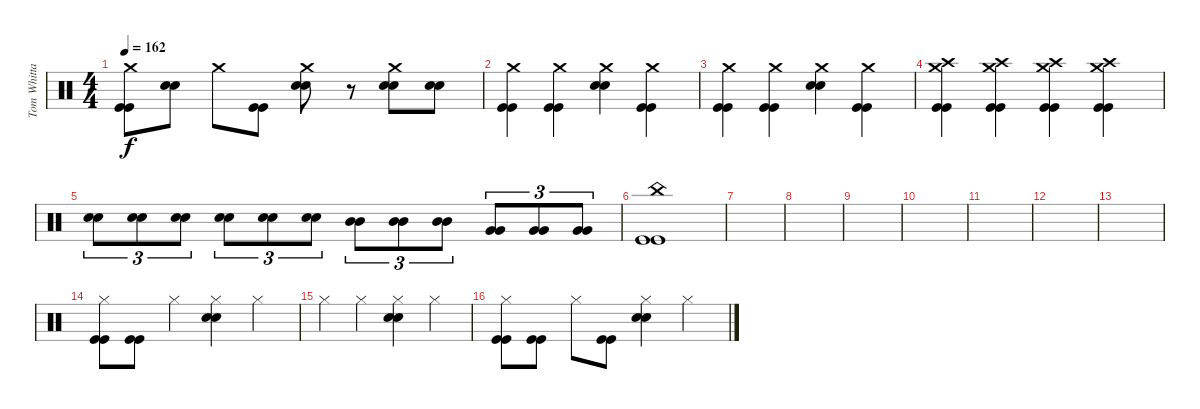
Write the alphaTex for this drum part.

\track ("Tom Whittaker" "Tom Whitta") {instrument percussion}
\staff {score}
\articulation defaults
\ts (4 4)
\tempo 162
\clef neutral
\ks c
("Crash medium (hit)" "Kick (hit)" "Kick (hit)").8{dy f} ("Electric Snare (hit)" "Electric Snare (hit)").8 "Crash medium (hit)".8 ("Kick (hit)" "Kick (hit)").8 ("Crash medium (hit)" "Electric Snare (hit)" "Electric Snare (hit)").8 r.8 ("Crash medium (hit)" "Electric Snare (hit)" "Electric Snare (hit)").8 ("Electric Snare (hit)" "Electric Snare (hit)").8 |
("Crash medium (hit)" "Kick (hit)" "Kick (hit)").4 ("Crash medium (hit)" "Kick (hit)" "Kick (hit)").4 ("Crash medium (hit)" "Electric Snare (hit)" "Electric Snare (hit)").4 ("Crash medium (hit)" "Kick (hit)" "Kick (hit)").4 |
("Crash medium (hit)" "Kick (hit)" "Kick (hit)").4 ("Crash medium (hit)" "Kick (hit)" "Kick (hit)").4 ("Crash medium (hit)" "Electric Snare (hit)" "Electric Snare (hit)").4 ("Crash medium (hit)" "Kick (hit)" "Kick (hit)").4 |
("Crash high (hit)" "Crash medium (hit)" "Kick (hit)" "Kick (hit)").4 ("Crash high (hit)" "Crash medium (hit)" "Kick (hit)" "Kick (hit)").4 ("Crash high (hit)" "Crash medium (hit)" "Kick (hit)" "Kick (hit)").4 ("Crash high (hit)" "Crash medium (hit)" "Kick (hit)" "Kick (hit)").4 |
("Electric Snare (hit)" "Electric Snare (hit)").8{tu (3 2)} ("Electric Snare (hit)" "Electric Snare (hit)").8{tu (3 2)} ("Electric Snare (hit)" "Electric Snare (hit)").8{tu (3 2)} ("Electric Snare (hit)" "Electric Snare (hit)").8{tu (3 2)} ("Electric Snare (hit)" "Electric Snare (hit)").8{tu (3 2)} ("Electric Snare (hit)" "Electric Snare (hit)").8{tu (3 2)} ("Mid Tom (hit)" "Mid Tom (hit)").8{tu (3 2)} ("Mid Tom (hit)" "Mid Tom (hit)").8{tu (3 2)} ("Mid Tom (hit)" "Mid Tom (hit)").8{tu (3 2)} ("Very Low Tom (hit)" "Very Low Tom (hit)").8{tu (3 2)} ("Very Low Tom (hit)" "Very Low Tom (hit)").8{tu (3 2)} ("Very Low Tom (hit)" "Very Low Tom (hit)").8{tu (3 2)} |
("China (hit)" "Kick (hit)" "Kick (hit)").1 |
|
|
|
|
|
|
|
("Hi-Hat (closed)" "Kick (hit)" "Kick (hit)").8 ("Kick (hit)" "Kick (hit)").8 "Hi-Hat (closed)".4 ("Hi-Hat (closed)" "Electric Snare (hit)" "Electric Snare (hit)").4 "Hi-Hat (closed)".4 |
"Hi-Hat (closed)".4 "Hi-Hat (closed)".4 ("Hi-Hat (closed)" "Electric Snare (hit)" "Electric Snare (hit)").4 "Hi-Hat (closed)".4 |
("Hi-Hat (closed)" "Kick (hit)" "Kick (hit)").8 ("Kick (hit)" "Kick (hit)").8 "Hi-Hat (closed)".8 ("Kick (hit)" "Kick (hit)").8 ("Hi-Hat (closed)" "Electric Snare (hit)" "Electric Snare (hit)").4 "Hi-Hat (closed)".4
